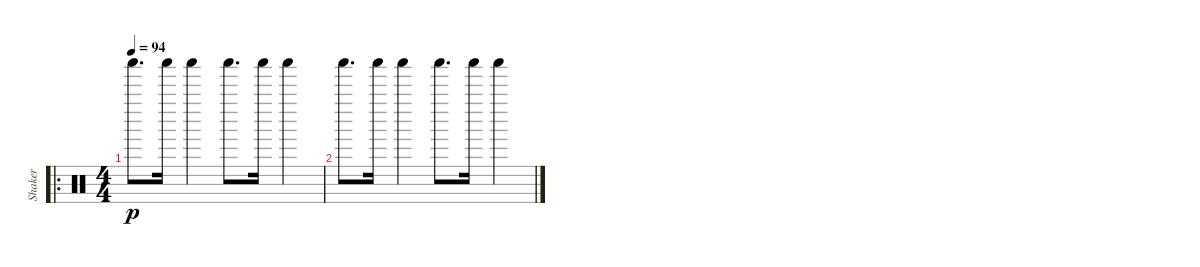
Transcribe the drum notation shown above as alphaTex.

\track ("Shaker" "Shaker") {instrument percussion}
\staff {score}
\articulation defaults
\ro
\ts (4 4)
\tempo 94
\clef neutral
\ks c "Shaker (hit)".8{d dy p} "Shaker (hit)".16 "Shaker (hit)".4 "Shaker (hit)".8{d} "Shaker (hit)".16 "Shaker (hit)".4
|
"Shaker (hit)".8{d} "Shaker (hit)".16 "Shaker (hit)".4 "Shaker (hit)".8{d} "Shaker (hit)".16 "Shaker (hit)".4
